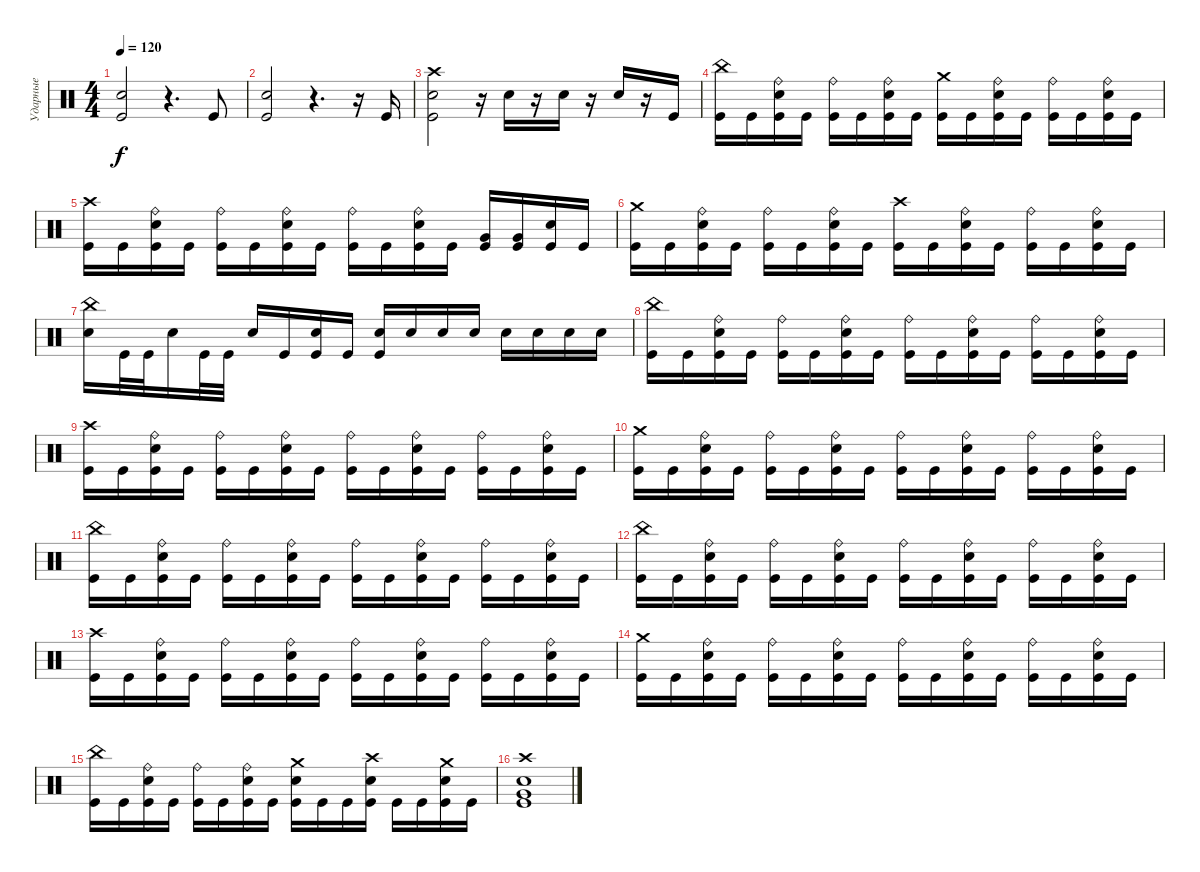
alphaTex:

\track ("Ударные" "Ударные") {instrument percussion}
\staff {score}
\articulation defaults
\ts (4 4)
\tempo 120
\clef neutral
\ks c
("Electric Snare (hit)" "Kick (hit)").2{dy f} r.4{d} "Kick (hit)".8 |
("Electric Snare (hit)" "Kick (hit)").2 r.4{d} r.16 "Kick (hit)".16 |
("Crash high (hit)" "Electric Snare (hit)" "Kick (hit)").2 r.16 "Electric Snare (hit)".16 r.16 "Electric Snare (hit)".16 r.16 "Electric Snare (hit)".16 r.16 "Kick (hit)".16 |
("China (hit)" "Kick (hit)").16 "Kick (hit)".16 ("Ride (bell)" "Electric Snare (hit)" "Kick (hit)").16 "Kick (hit)".16 ("Ride (bell)" "Kick (hit)").16 "Kick (hit)".16 ("Ride (bell)" "Electric Snare (hit)" "Kick (hit)").16 "Kick (hit)".16 ("Crash medium (hit)" "Kick (hit)").16 "Kick (hit)".16 ("Ride (bell)" "Electric Snare (hit)" "Kick (hit)").16 "Kick (hit)".16 ("Ride (bell)" "Kick (hit)").16 "Kick (hit)".16 ("Ride (bell)" "Electric Snare (hit)" "Kick (hit)").16 "Kick (hit)".16 |
("Crash high (hit)" "Kick (hit)").16 "Kick (hit)".16 ("Ride (bell)" "Electric Snare (hit)" "Kick (hit)").16 "Kick (hit)".16 ("Ride (bell)" "Kick (hit)").16 "Kick (hit)".16 ("Ride (bell)" "Electric Snare (hit)" "Kick (hit)").16 "Kick (hit)".16 ("Ride (bell)" "Kick (hit)").16 "Kick (hit)".16 ("Ride (bell)" "Electric Snare (hit)" "Kick (hit)").16 "Kick (hit)".16 ("Very Low Tom (hit)" "Kick (hit)").16 ("Very Low Tom (hit)" "Kick (hit)").16 ("Electric Snare (hit)" "Kick (hit)").16 "Kick (hit)".16 |
("Crash medium (hit)" "Kick (hit)").16 "Kick (hit)".16 ("Ride (bell)" "Electric Snare (hit)" "Kick (hit)").16 "Kick (hit)".16 ("Ride (bell)" "Kick (hit)").16 "Kick (hit)".16 ("Ride (bell)" "Electric Snare (hit)" "Kick (hit)").16 "Kick (hit)".16 ("Crash high (hit)" "Kick (hit)").16 "Kick (hit)".16 ("Ride (bell)" "Electric Snare (hit)" "Kick (hit)").16 "Kick (hit)".16 ("Ride (bell)" "Kick (hit)").16 "Kick (hit)".16 ("Ride (bell)" "Electric Snare (hit)" "Kick (hit)").16 "Kick (hit)".16 |
("China (hit)" "Electric Snare (hit)").16 "Kick (hit)".32 "Kick (hit)".32 "Electric Snare (hit)".16 "Kick (hit)".32 "Kick (hit)".32 "Electric Snare (hit)".16 "Kick (hit)".16 ("Electric Snare (hit)" "Kick (hit)").16 "Kick (hit)".16 ("Electric Snare (hit)" "Kick (hit)").16 "Electric Snare (hit)".16 "Electric Snare (hit)".16 "Electric Snare (hit)".16 "Electric Snare (hit)".16 "Electric Snare (hit)".16 "Electric Snare (hit)".16 "Electric Snare (hit)".16 |
("China (hit)" "Kick (hit)").16 "Kick (hit)".16 ("Ride (bell)" "Electric Snare (hit)" "Kick (hit)").16 "Kick (hit)".16 ("Ride (bell)" "Kick (hit)").16 "Kick (hit)".16 ("Ride (bell)" "Electric Snare (hit)" "Kick (hit)").16 "Kick (hit)".16 ("Ride (bell)" "Kick (hit)").16 "Kick (hit)".16 ("Ride (bell)" "Electric Snare (hit)" "Kick (hit)").16 "Kick (hit)".16 ("Ride (bell)" "Kick (hit)").16 "Kick (hit)".16 ("Ride (bell)" "Electric Snare (hit)" "Kick (hit)").16 "Kick (hit)".16 |
("Crash high (hit)" "Kick (hit)").16 "Kick (hit)".16 ("Ride (bell)" "Electric Snare (hit)" "Kick (hit)").16 "Kick (hit)".16 ("Ride (bell)" "Kick (hit)").16 "Kick (hit)".16 ("Ride (bell)" "Electric Snare (hit)" "Kick (hit)").16 "Kick (hit)".16 ("Ride (bell)" "Kick (hit)").16 "Kick (hit)".16 ("Ride (bell)" "Electric Snare (hit)" "Kick (hit)").16 "Kick (hit)".16 ("Ride (bell)" "Kick (hit)").16 "Kick (hit)".16 ("Ride (bell)" "Electric Snare (hit)" "Kick (hit)").16 "Kick (hit)".16 |
("Crash medium (hit)" "Kick (hit)").16 "Kick (hit)".16 ("Ride (bell)" "Electric Snare (hit)" "Kick (hit)").16 "Kick (hit)".16 ("Ride (bell)" "Kick (hit)").16 "Kick (hit)".16 ("Ride (bell)" "Electric Snare (hit)" "Kick (hit)").16 "Kick (hit)".16 ("Ride (bell)" "Kick (hit)").16 "Kick (hit)".16 ("Ride (bell)" "Electric Snare (hit)" "Kick (hit)").16 "Kick (hit)".16 ("Ride (bell)" "Kick (hit)").16 "Kick (hit)".16 ("Ride (bell)" "Electric Snare (hit)" "Kick (hit)").16 "Kick (hit)".16 |
("China (hit)" "Kick (hit)").16 "Kick (hit)".16 ("Ride (bell)" "Electric Snare (hit)" "Kick (hit)").16 "Kick (hit)".16 ("Ride (bell)" "Kick (hit)").16 "Kick (hit)".16 ("Ride (bell)" "Electric Snare (hit)" "Kick (hit)").16 "Kick (hit)".16 ("Ride (bell)" "Kick (hit)").16 "Kick (hit)".16 ("Ride (bell)" "Electric Snare (hit)" "Kick (hit)").16 "Kick (hit)".16 ("Ride (bell)" "Kick (hit)").16 "Kick (hit)".16 ("Ride (bell)" "Electric Snare (hit)" "Kick (hit)").16 "Kick (hit)".16 |
("China (hit)" "Kick (hit)").16 "Kick (hit)".16 ("Ride (bell)" "Electric Snare (hit)" "Kick (hit)").16 "Kick (hit)".16 ("Ride (bell)" "Kick (hit)").16 "Kick (hit)".16 ("Ride (bell)" "Electric Snare (hit)" "Kick (hit)").16 "Kick (hit)".16 ("Ride (bell)" "Kick (hit)").16 "Kick (hit)".16 ("Ride (bell)" "Electric Snare (hit)" "Kick (hit)").16 "Kick (hit)".16 ("Ride (bell)" "Kick (hit)").16 "Kick (hit)".16 ("Ride (bell)" "Electric Snare (hit)" "Kick (hit)").16 "Kick (hit)".16 |
("Crash high (hit)" "Kick (hit)").16 "Kick (hit)".16 ("Ride (bell)" "Electric Snare (hit)" "Kick (hit)").16 "Kick (hit)".16 ("Ride (bell)" "Kick (hit)").16 "Kick (hit)".16 ("Ride (bell)" "Electric Snare (hit)" "Kick (hit)").16 "Kick (hit)".16 ("Ride (bell)" "Kick (hit)").16 "Kick (hit)".16 ("Ride (bell)" "Electric Snare (hit)" "Kick (hit)").16 "Kick (hit)".16 ("Ride (bell)" "Kick (hit)").16 "Kick (hit)".16 ("Ride (bell)" "Electric Snare (hit)" "Kick (hit)").16 "Kick (hit)".16 |
("Crash medium (hit)" "Kick (hit)").16 "Kick (hit)".16 ("Ride (bell)" "Electric Snare (hit)" "Kick (hit)").16 "Kick (hit)".16 ("Ride (bell)" "Kick (hit)").16 "Kick (hit)".16 ("Ride (bell)" "Electric Snare (hit)" "Kick (hit)").16 "Kick (hit)".16 ("Ride (bell)" "Kick (hit)").16 "Kick (hit)".16 ("Ride (bell)" "Electric Snare (hit)" "Kick (hit)").16 "Kick (hit)".16 ("Ride (bell)" "Kick (hit)").16 "Kick (hit)".16 ("Ride (bell)" "Electric Snare (hit)" "Kick (hit)").16 "Kick (hit)".16 |
("China (hit)" "Kick (hit)").16 "Kick (hit)".16 ("Ride (bell)" "Electric Snare (hit)" "Kick (hit)").16 "Kick (hit)".16 ("Ride (bell)" "Kick (hit)").16 "Kick (hit)".16 ("Ride (bell)" "Electric Snare (hit)" "Kick (hit)").16 "Kick (hit)".16 ("Crash medium (hit)" "Electric Snare (hit)" "Kick (hit)").16 "Kick (hit)".16 "Kick (hit)".16 ("Crash high (hit)" "Electric Snare (hit)" "Kick (hit)").16 "Kick (hit)".16 "Kick (hit)".16 ("Crash medium (hit)" "Electric Snare (hit)" "Kick (hit)").16 "Kick (hit)".16 |
("Crash high (hit)" "Very Low Tom (hit)" "Electric Snare (hit)" "Kick (hit)").1
